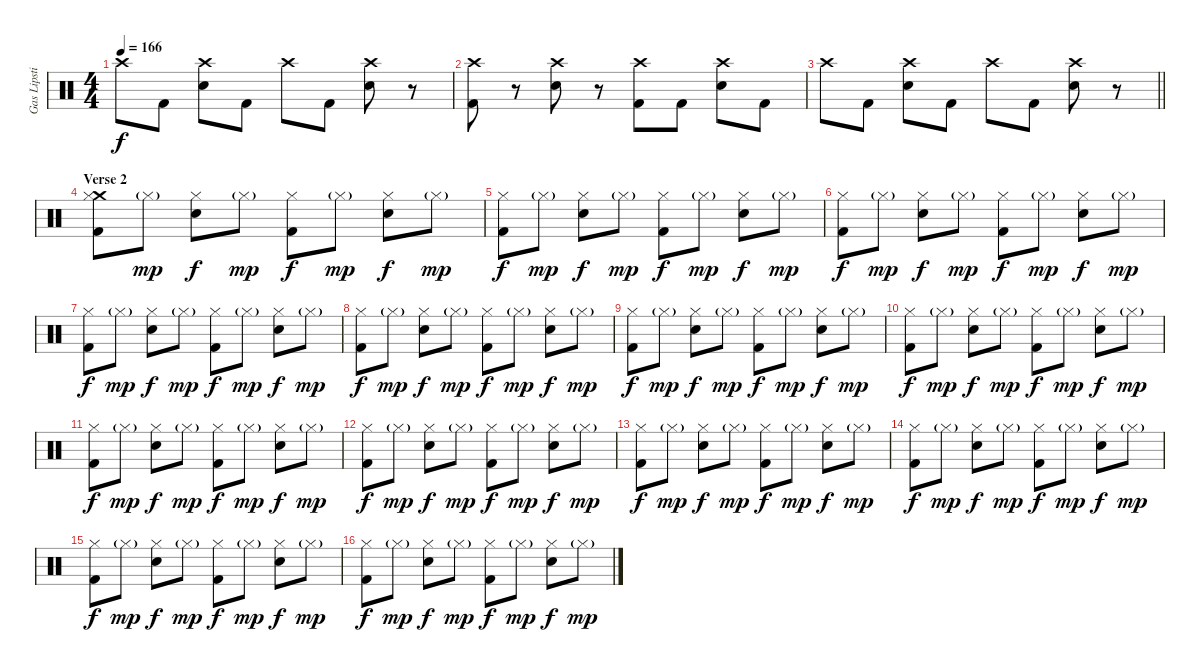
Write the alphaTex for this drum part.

\track ("Gas Lipstick (Drums)" "Gas Lipsti") {instrument percussion}
\staff {score}
\articulation defaults
\ts (4 4)
\tempo 166
\clef neutral
\ks c "Crash high (hit)".8{dy f} "Kick (hit) 2".8
("Crash high (hit)" "Snare (hit) 2").8 "Kick (hit) 2".8 "Crash high (hit)".8 "Kick (hit) 2".8 ("Crash high (hit)" "Snare (hit) 2").8 r.8 |
("Crash high (hit)" "Kick (hit) 2").8 r.8 ("Crash high (hit)" "Snare (hit) 2").8 r.8 ("Crash high (hit)" "Kick (hit) 2").8 "Kick (hit) 2".8 ("Crash high (hit)" "Snare (hit) 2").8 "Kick (hit) 2".8 |
\barLineRight lightlight "Crash high (hit)".8 "Kick (hit) 2".8
("Crash high (hit)" "Snare (hit) 2").8 "Kick (hit) 2".8 "Crash high (hit)".8 "Kick (hit) 2".8 ("Crash high (hit)" "Snare (hit) 2").8 r.8 |
\section ("" "Verse 2")
("Crash medium (hit)" "Hi-Hat (closed)" "Kick (hit) 2").8 "Hi-Hat (closed)"{g}.8{dy mp} ("Hi-Hat (closed)" "Snare (hit) 2").8{dy f} "Hi-Hat (closed)"{g}.8{dy mp} ("Hi-Hat (closed)" "Kick (hit) 2").8{dy f} "Hi-Hat (closed)"{g}.8{dy mp} ("Hi-Hat (closed)" "Snare (hit) 2").8{dy f} "Hi-Hat (closed)"{g}.8{dy mp} |
("Hi-Hat (closed)" "Kick (hit) 2").8{dy f} "Hi-Hat (closed)"{g}.8{dy mp} ("Hi-Hat (closed)" "Snare (hit) 2").8{dy f} "Hi-Hat (closed)"{g}.8{dy mp} ("Hi-Hat (closed)" "Kick (hit) 2").8{dy f} "Hi-Hat (closed)"{g}.8{dy mp} ("Hi-Hat (closed)" "Snare (hit) 2").8{dy f} "Hi-Hat (closed)"{g}.8{dy mp} |
("Hi-Hat (closed)" "Kick (hit) 2").8{dy f} "Hi-Hat (closed)"{g}.8{dy mp} ("Hi-Hat (closed)" "Snare (hit) 2").8{dy f} "Hi-Hat (closed)"{g}.8{dy mp} ("Hi-Hat (closed)" "Kick (hit) 2").8{dy f} "Hi-Hat (closed)"{g}.8{dy mp} ("Hi-Hat (closed)" "Snare (hit) 2").8{dy f} "Hi-Hat (closed)"{g}.8{dy mp} |
("Hi-Hat (closed)" "Kick (hit) 2").8{dy f} "Hi-Hat (closed)"{g}.8{dy mp} ("Hi-Hat (closed)" "Snare (hit) 2").8{dy f} "Hi-Hat (closed)"{g}.8{dy mp} ("Hi-Hat (closed)" "Kick (hit) 2").8{dy f} "Hi-Hat (closed)"{g}.8{dy mp} ("Hi-Hat (closed)" "Snare (hit) 2").8{dy f} "Hi-Hat (closed)"{g}.8{dy mp} |
("Hi-Hat (closed)" "Kick (hit) 2").8{dy f} "Hi-Hat (closed)"{g}.8{dy mp} ("Hi-Hat (closed)" "Snare (hit) 2").8{dy f} "Hi-Hat (closed)"{g}.8{dy mp} ("Hi-Hat (closed)" "Kick (hit) 2").8{dy f} "Hi-Hat (closed)"{g}.8{dy mp} ("Hi-Hat (closed)" "Snare (hit) 2").8{dy f} "Hi-Hat (closed)"{g}.8{dy mp} |
("Hi-Hat (closed)" "Kick (hit) 2").8{dy f} "Hi-Hat (closed)"{g}.8{dy mp} ("Hi-Hat (closed)" "Snare (hit) 2").8{dy f} "Hi-Hat (closed)"{g}.8{dy mp} ("Hi-Hat (closed)" "Kick (hit) 2").8{dy f} "Hi-Hat (closed)"{g}.8{dy mp} ("Hi-Hat (closed)" "Snare (hit) 2").8{dy f} "Hi-Hat (closed)"{g}.8{dy mp} |
("Hi-Hat (closed)" "Kick (hit) 2").8{dy f} "Hi-Hat (closed)"{g}.8{dy mp} ("Hi-Hat (closed)" "Snare (hit) 2").8{dy f} "Hi-Hat (closed)"{g}.8{dy mp} ("Hi-Hat (closed)" "Kick (hit) 2").8{dy f} "Hi-Hat (closed)"{g}.8{dy mp} ("Hi-Hat (closed)" "Snare (hit) 2").8{dy f} "Hi-Hat (closed)"{g}.8{dy mp} |
("Hi-Hat (closed)" "Kick (hit) 2").8{dy f} "Hi-Hat (closed)"{g}.8{dy mp} ("Hi-Hat (closed)" "Snare (hit) 2").8{dy f} "Hi-Hat (closed)"{g}.8{dy mp} ("Hi-Hat (closed)" "Kick (hit) 2").8{dy f} "Hi-Hat (closed)"{g}.8{dy mp} ("Hi-Hat (closed)" "Snare (hit) 2").8{dy f} "Hi-Hat (closed)"{g}.8{dy mp} |
("Hi-Hat (closed)" "Kick (hit) 2").8{dy f} "Hi-Hat (closed)"{g}.8{dy mp} ("Hi-Hat (closed)" "Snare (hit) 2").8{dy f} "Hi-Hat (closed)"{g}.8{dy mp} ("Hi-Hat (closed)" "Kick (hit) 2").8{dy f} "Hi-Hat (closed)"{g}.8{dy mp} ("Hi-Hat (closed)" "Snare (hit) 2").8{dy f} "Hi-Hat (closed)"{g}.8{dy mp} |
("Hi-Hat (closed)" "Kick (hit) 2").8{dy f} "Hi-Hat (closed)"{g}.8{dy mp} ("Hi-Hat (closed)" "Snare (hit) 2").8{dy f} "Hi-Hat (closed)"{g}.8{dy mp} ("Hi-Hat (closed)" "Kick (hit) 2").8{dy f} "Hi-Hat (closed)"{g}.8{dy mp} ("Hi-Hat (closed)" "Snare (hit) 2").8{dy f} "Hi-Hat (closed)"{g}.8{dy mp} |
("Hi-Hat (closed)" "Kick (hit) 2").8{dy f} "Hi-Hat (closed)"{g}.8{dy mp} ("Hi-Hat (closed)" "Snare (hit) 2").8{dy f} "Hi-Hat (closed)"{g}.8{dy mp} ("Hi-Hat (closed)" "Kick (hit) 2").8{dy f} "Hi-Hat (closed)"{g}.8{dy mp} ("Hi-Hat (closed)" "Snare (hit) 2").8{dy f} "Hi-Hat (closed)"{g}.8{dy mp} |
("Hi-Hat (closed)" "Kick (hit) 2").8{dy f} "Hi-Hat (closed)"{g}.8{dy mp} ("Hi-Hat (closed)" "Snare (hit) 2").8{dy f} "Hi-Hat (closed)"{g}.8{dy mp} ("Hi-Hat (closed)" "Kick (hit) 2").8{dy f} "Hi-Hat (closed)"{g}.8{dy mp} ("Hi-Hat (closed)" "Snare (hit) 2").8{dy f} "Hi-Hat (closed)"{g}.8{dy mp} |
("Hi-Hat (closed)" "Kick (hit) 2").8{dy f} "Hi-Hat (closed)"{g}.8{dy mp} ("Hi-Hat (closed)" "Snare (hit) 2").8{dy f} "Hi-Hat (closed)"{g}.8{dy mp} ("Hi-Hat (closed)" "Kick (hit) 2").8{dy f} "Hi-Hat (closed)"{g}.8{dy mp} ("Hi-Hat (closed)" "Snare (hit) 2").8{dy f} "Hi-Hat (closed)"{g}.8{dy mp}
